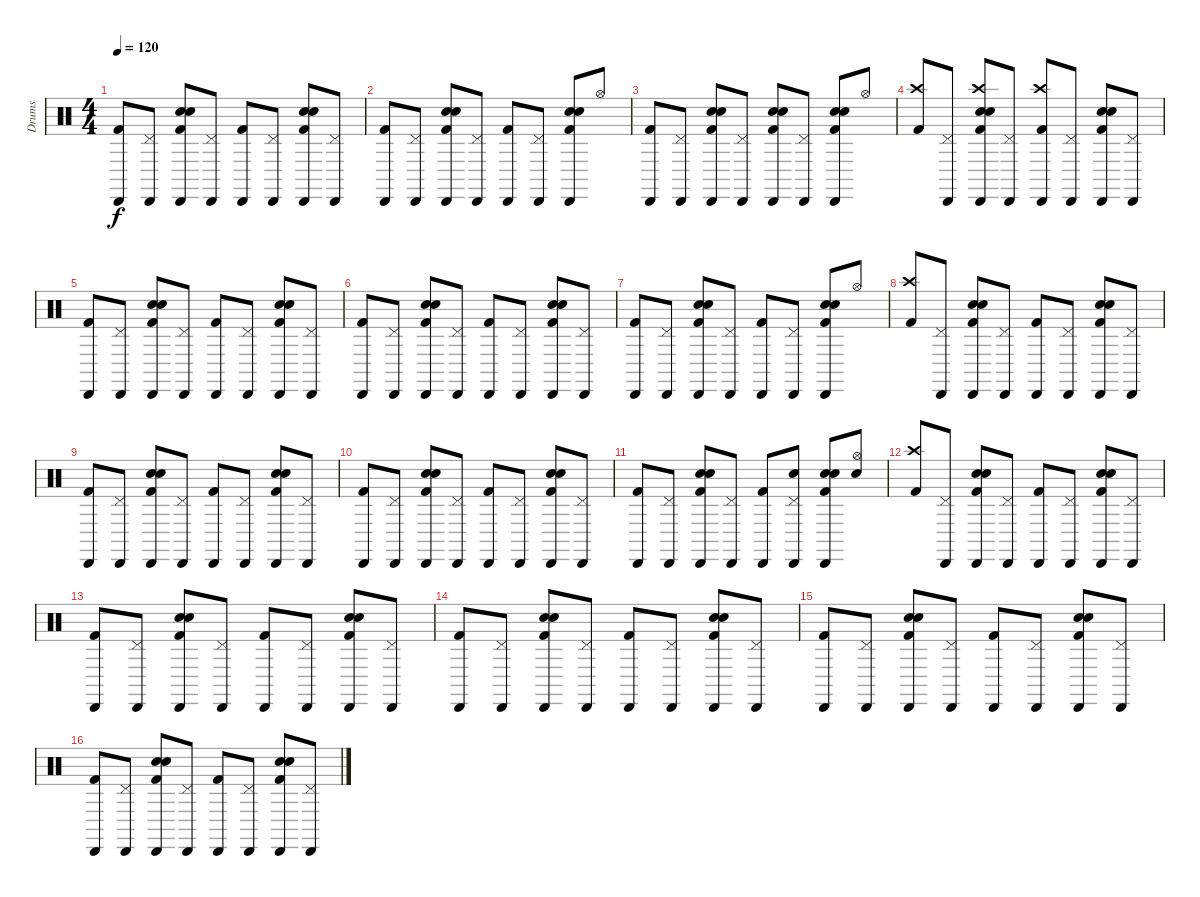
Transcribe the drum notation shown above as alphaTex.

\track ("Drums" "Drums") {instrument percussion}
\staff {score}
\articulation defaults
\ts (4 4)
\tempo 120
\clef neutral
\ks c
("Cabasa (hit)" "Kick (hit) 2").8{dy f} ("Cabasa (hit)" "Pedal Hi-Hat (hit)").8 ("Hand Clap (hit)" "Cabasa (hit)" "Electric Snare (hit)" "Kick (hit) 2").8 ("Cabasa (hit)" "Pedal Hi-Hat (hit)").8 ("Cabasa (hit)" "Kick (hit) 2").8 ("Cabasa (hit)" "Pedal Hi-Hat (hit)").8 ("Hand Clap (hit)" "Cabasa (hit)" "Electric Snare (hit)" "Kick (hit) 2").8 ("Cabasa (hit)" "Pedal Hi-Hat (hit)").8 |
("Cabasa (hit)" "Kick (hit) 2").8 ("Cabasa (hit)" "Pedal Hi-Hat (hit)").8 ("Hand Clap (hit)" "Cabasa (hit)" "Electric Snare (hit)" "Kick (hit) 2").8 ("Cabasa (hit)" "Pedal Hi-Hat (hit)").8 ("Cabasa (hit)" "Kick (hit) 2").8 ("Cabasa (hit)" "Pedal Hi-Hat (hit)").8 ("Hand Clap (hit)" "Cabasa (hit)" "Electric Snare (hit)" "Kick (hit) 2").8 "Hi-Hat (open)".8 |
("Cabasa (hit)" "Kick (hit) 2").8 ("Cabasa (hit)" "Pedal Hi-Hat (hit)").8 ("Hand Clap (hit)" "Cabasa (hit)" "Electric Snare (hit)" "Kick (hit) 2").8 ("Cabasa (hit)" "Pedal Hi-Hat (hit)").8 ("Hand Clap (hit)" "Cabasa (hit)" "Electric Snare (hit)" "Kick (hit) 2").8 ("Cabasa (hit)" "Pedal Hi-Hat (hit)").8 ("Hand Clap (hit)" "Cabasa (hit)" "Electric Snare (hit)" "Kick (hit) 2").8 "Hi-Hat (open)".8 |
("Crash high (hit)" "Kick (hit) 2").8 ("Cabasa (hit)" "Pedal Hi-Hat (hit)").8 ("Crash high (hit)" "Hand Clap (hit)" "Cabasa (hit)" "Electric Snare (hit)" "Kick (hit) 2").8 ("Cabasa (hit)" "Pedal Hi-Hat (hit)").8 ("Crash high (hit)" "Cabasa (hit)" "Kick (hit) 2").8 ("Cabasa (hit)" "Pedal Hi-Hat (hit)").8 ("Hand Clap (hit)" "Cabasa (hit)" "Electric Snare (hit)" "Kick (hit) 2").8 ("Cabasa (hit)" "Pedal Hi-Hat (hit)").8 |
("Cabasa (hit)" "Kick (hit) 2").8 ("Cabasa (hit)" "Pedal Hi-Hat (hit)").8 ("Hand Clap (hit)" "Cabasa (hit)" "Electric Snare (hit)" "Kick (hit) 2").8 ("Cabasa (hit)" "Pedal Hi-Hat (hit)").8 ("Cabasa (hit)" "Kick (hit) 2").8 ("Cabasa (hit)" "Pedal Hi-Hat (hit)").8 ("Hand Clap (hit)" "Cabasa (hit)" "Electric Snare (hit)" "Kick (hit) 2").8 ("Cabasa (hit)" "Pedal Hi-Hat (hit)").8 |
("Cabasa (hit)" "Kick (hit) 2").8 ("Cabasa (hit)" "Pedal Hi-Hat (hit)").8 ("Hand Clap (hit)" "Cabasa (hit)" "Electric Snare (hit)" "Kick (hit) 2").8 ("Cabasa (hit)" "Pedal Hi-Hat (hit)").8 ("Cabasa (hit)" "Kick (hit) 2").8 ("Cabasa (hit)" "Pedal Hi-Hat (hit)").8 ("Hand Clap (hit)" "Cabasa (hit)" "Electric Snare (hit)" "Kick (hit) 2").8 ("Cabasa (hit)" "Pedal Hi-Hat (hit)").8 |
("Cabasa (hit)" "Kick (hit) 2").8 ("Cabasa (hit)" "Pedal Hi-Hat (hit)").8 ("Hand Clap (hit)" "Cabasa (hit)" "Electric Snare (hit)" "Kick (hit) 2").8 ("Cabasa (hit)" "Pedal Hi-Hat (hit)").8 ("Cabasa (hit)" "Kick (hit) 2").8 ("Cabasa (hit)" "Pedal Hi-Hat (hit)").8 ("Hand Clap (hit)" "Cabasa (hit)" "Electric Snare (hit)" "Kick (hit) 2").8 "Hi-Hat (open)".8 |
("Crash high (hit)" "Kick (hit) 2").8 ("Cabasa (hit)" "Pedal Hi-Hat (hit)").8 ("Hand Clap (hit)" "Cabasa (hit)" "Electric Snare (hit)" "Kick (hit) 2").8 ("Cabasa (hit)" "Pedal Hi-Hat (hit)").8 ("Cabasa (hit)" "Kick (hit) 2").8 ("Cabasa (hit)" "Pedal Hi-Hat (hit)").8 ("Hand Clap (hit)" "Cabasa (hit)" "Electric Snare (hit)" "Kick (hit) 2").8 ("Cabasa (hit)" "Pedal Hi-Hat (hit)").8 |
("Cabasa (hit)" "Kick (hit) 2").8 ("Cabasa (hit)" "Pedal Hi-Hat (hit)").8 ("Hand Clap (hit)" "Cabasa (hit)" "Electric Snare (hit)" "Kick (hit) 2").8 ("Cabasa (hit)" "Pedal Hi-Hat (hit)").8 ("Cabasa (hit)" "Kick (hit) 2").8 ("Cabasa (hit)" "Pedal Hi-Hat (hit)").8 ("Hand Clap (hit)" "Cabasa (hit)" "Electric Snare (hit)" "Kick (hit) 2").8 ("Cabasa (hit)" "Pedal Hi-Hat (hit)").8 |
("Cabasa (hit)" "Kick (hit) 2").8 ("Cabasa (hit)" "Pedal Hi-Hat (hit)").8 ("Hand Clap (hit)" "Cabasa (hit)" "Electric Snare (hit)" "Kick (hit) 2").8 ("Cabasa (hit)" "Pedal Hi-Hat (hit)").8 ("Cabasa (hit)" "Kick (hit) 2").8 ("Cabasa (hit)" "Pedal Hi-Hat (hit)").8 ("Hand Clap (hit)" "Cabasa (hit)" "Electric Snare (hit)" "Kick (hit) 2").8 ("Cabasa (hit)" "Pedal Hi-Hat (hit)").8 |
("Cabasa (hit)" "Kick (hit) 2").8 ("Cabasa (hit)" "Pedal Hi-Hat (hit)").8 ("Hand Clap (hit)" "Cabasa (hit)" "Electric Snare (hit)" "Kick (hit) 2").8 ("Cabasa (hit)" "Pedal Hi-Hat (hit)").8 ("Cabasa (hit)" "Kick (hit) 2").8 ("Cabasa (hit)" "Pedal Hi-Hat (hit)" "Electric Snare (hit)").8 ("Hand Clap (hit)" "Cabasa (hit)" "Electric Snare (hit)" "Kick (hit) 2").8 ("Hi-Hat (open)" "Electric Snare (hit)").8 |
("Crash high (hit)" "Kick (hit) 2").8 ("Cabasa (hit)" "Pedal Hi-Hat (hit)").8 ("Hand Clap (hit)" "Cabasa (hit)" "Electric Snare (hit)" "Kick (hit) 2").8 ("Cabasa (hit)" "Pedal Hi-Hat (hit)").8 ("Cabasa (hit)" "Kick (hit) 2").8 ("Cabasa (hit)" "Pedal Hi-Hat (hit)").8 ("Hand Clap (hit)" "Cabasa (hit)" "Electric Snare (hit)" "Kick (hit) 2").8 ("Cabasa (hit)" "Pedal Hi-Hat (hit)").8 |
("Cabasa (hit)" "Kick (hit) 2").8 ("Cabasa (hit)" "Pedal Hi-Hat (hit)").8 ("Hand Clap (hit)" "Cabasa (hit)" "Electric Snare (hit)" "Kick (hit) 2").8 ("Cabasa (hit)" "Pedal Hi-Hat (hit)").8 ("Cabasa (hit)" "Kick (hit) 2").8 ("Cabasa (hit)" "Pedal Hi-Hat (hit)").8 ("Hand Clap (hit)" "Cabasa (hit)" "Electric Snare (hit)" "Kick (hit) 2").8 ("Cabasa (hit)" "Pedal Hi-Hat (hit)").8 |
("Cabasa (hit)" "Kick (hit) 2").8 ("Cabasa (hit)" "Pedal Hi-Hat (hit)").8 ("Hand Clap (hit)" "Cabasa (hit)" "Electric Snare (hit)" "Kick (hit) 2").8 ("Cabasa (hit)" "Pedal Hi-Hat (hit)").8 ("Cabasa (hit)" "Kick (hit) 2").8 ("Cabasa (hit)" "Pedal Hi-Hat (hit)").8 ("Hand Clap (hit)" "Cabasa (hit)" "Electric Snare (hit)" "Kick (hit) 2").8 ("Cabasa (hit)" "Pedal Hi-Hat (hit)").8 |
("Cabasa (hit)" "Kick (hit) 2").8 ("Cabasa (hit)" "Pedal Hi-Hat (hit)").8 ("Hand Clap (hit)" "Cabasa (hit)" "Electric Snare (hit)" "Kick (hit) 2").8 ("Cabasa (hit)" "Pedal Hi-Hat (hit)").8 ("Cabasa (hit)" "Kick (hit) 2").8 ("Cabasa (hit)" "Pedal Hi-Hat (hit)").8 ("Hand Clap (hit)" "Cabasa (hit)" "Electric Snare (hit)" "Kick (hit) 2").8 ("Cabasa (hit)" "Pedal Hi-Hat (hit)").8 |
("Cabasa (hit)" "Kick (hit) 2").8 ("Cabasa (hit)" "Pedal Hi-Hat (hit)").8 ("Hand Clap (hit)" "Cabasa (hit)" "Electric Snare (hit)" "Kick (hit) 2").8 ("Cabasa (hit)" "Pedal Hi-Hat (hit)").8 ("Cabasa (hit)" "Kick (hit) 2").8 ("Cabasa (hit)" "Pedal Hi-Hat (hit)").8 ("Hand Clap (hit)" "Cabasa (hit)" "Electric Snare (hit)" "Kick (hit) 2").8 ("Cabasa (hit)" "Pedal Hi-Hat (hit)").8
